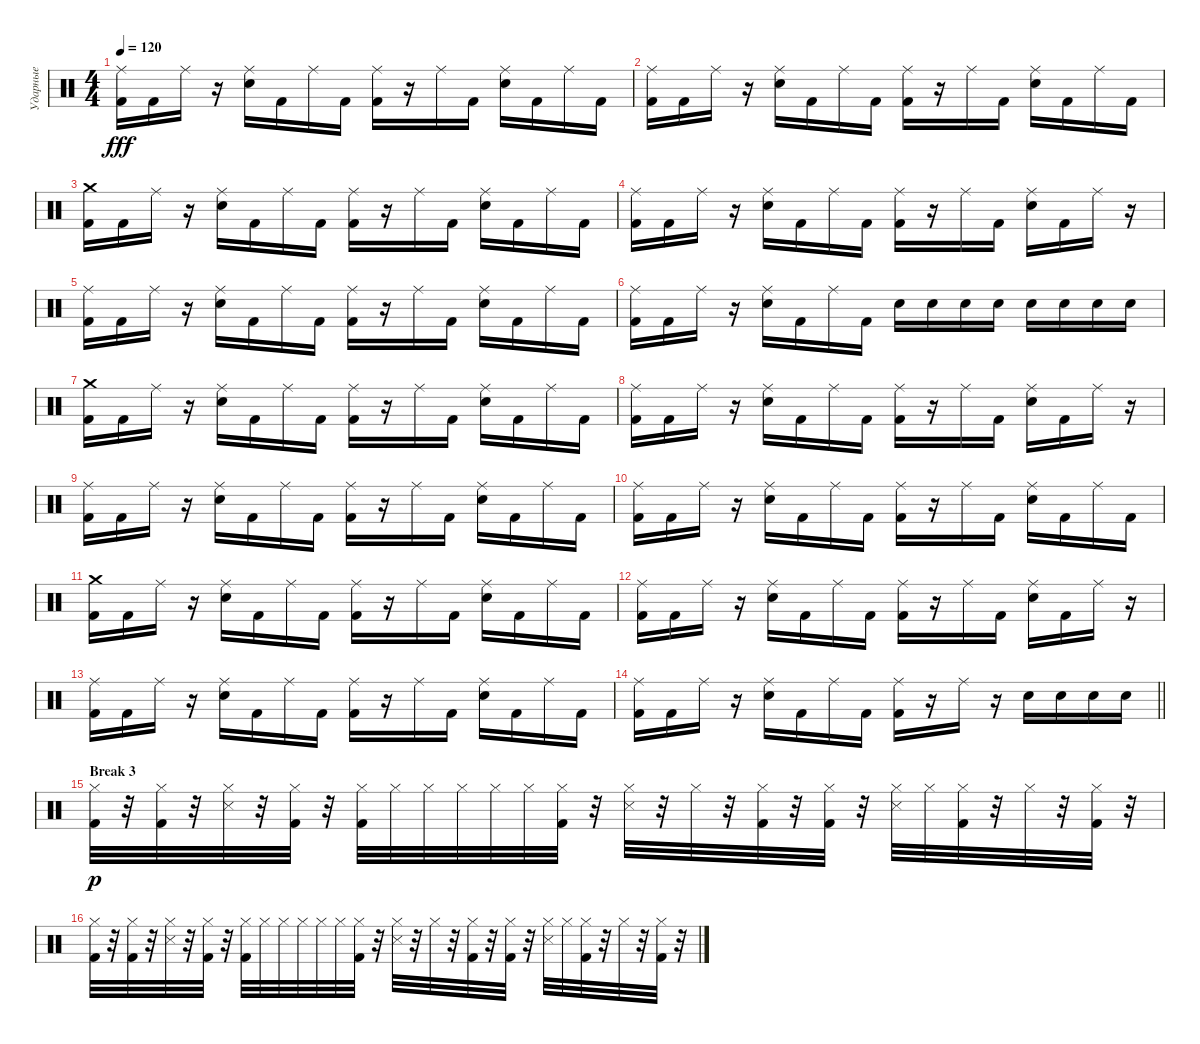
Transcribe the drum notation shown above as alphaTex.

\track ("Ударные" "Ударные") {instrument percussion}
\staff {score}
\articulation defaults
\ts (4 4)
\tempo 120
\clef neutral
\ks c
("Ride (middle)" "Kick (hit) 2").16{dy fff} "Kick (hit) 2".16 "Ride (middle)".16 r.16 ("Ride (middle)" "Electric Snare (hit)").16 "Kick (hit) 2".16 "Ride (middle)".16 "Kick (hit) 2".16 ("Ride (middle)" "Kick (hit) 2").16 r.16 "Ride (middle)".16 "Kick (hit) 2".16 ("Ride (middle)" "Electric Snare (hit)").16 "Kick (hit) 2".16 "Ride (middle)".16 "Kick (hit) 2".16 |
("Ride (middle)" "Kick (hit) 2").16 "Kick (hit) 2".16 "Ride (middle)".16 r.16 ("Ride (middle)" "Electric Snare (hit)").16 "Kick (hit) 2".16 "Ride (middle)".16 "Kick (hit) 2".16 ("Ride (middle)" "Kick (hit) 2").16 r.16 "Ride (middle)".16 "Kick (hit) 2".16 ("Ride (middle)" "Electric Snare (hit)").16 "Kick (hit) 2".16 "Ride (middle)".16 "Kick (hit) 2".16 |
("Crash medium (hit)" "Kick (hit) 2").16 "Kick (hit) 2".16 "Ride (middle)".16 r.16 ("Ride (middle)" "Electric Snare (hit)").16 "Kick (hit) 2".16 "Ride (middle)".16 "Kick (hit) 2".16 ("Ride (middle)" "Kick (hit) 2").16 r.16 "Ride (middle)".16 "Kick (hit) 2".16 ("Ride (middle)" "Electric Snare (hit)").16 "Kick (hit) 2".16 "Ride (middle)".16 "Kick (hit) 2".16 |
("Ride (middle)" "Kick (hit) 2").16 "Kick (hit) 2".16 "Ride (middle)".16 r.16 ("Ride (middle)" "Electric Snare (hit)").16 "Kick (hit) 2".16 "Ride (middle)".16 "Kick (hit) 2".16 ("Ride (middle)" "Kick (hit) 2").16 r.16 "Ride (middle)".16 "Kick (hit) 2".16 ("Ride (middle)" "Electric Snare (hit)").16 "Kick (hit) 2".16 "Ride (middle)".16 r.16 |
("Ride (middle)" "Kick (hit) 2").16 "Kick (hit) 2".16 "Ride (middle)".16 r.16 ("Ride (middle)" "Electric Snare (hit)").16 "Kick (hit) 2".16 "Ride (middle)".16 "Kick (hit) 2".16 ("Ride (middle)" "Kick (hit) 2").16 r.16 "Ride (middle)".16 "Kick (hit) 2".16 ("Ride (middle)" "Electric Snare (hit)").16 "Kick (hit) 2".16 "Ride (middle)".16 "Kick (hit) 2".16 |
("Ride (middle)" "Kick (hit) 2").16 "Kick (hit) 2".16 "Ride (middle)".16 r.16 ("Ride (middle)" "Electric Snare (hit)").16 "Kick (hit) 2".16 "Ride (middle)".16 "Kick (hit) 2".16 "Electric Snare (hit)".16 "Electric Snare (hit)".16 "Electric Snare (hit)".16 "Electric Snare (hit)".16 "Electric Snare (hit)".16 "Electric Snare (hit)".16 "Electric Snare (hit)".16 "Electric Snare (hit)".16 |
("Crash medium (hit)" "Kick (hit) 2").16 "Kick (hit) 2".16 "Ride (middle)".16 r.16 ("Ride (middle)" "Electric Snare (hit)").16 "Kick (hit) 2".16 "Ride (middle)".16 "Kick (hit) 2".16 ("Ride (middle)" "Kick (hit) 2").16 r.16 "Ride (middle)".16 "Kick (hit) 2".16 ("Ride (middle)" "Electric Snare (hit)").16 "Kick (hit) 2".16 "Ride (middle)".16 "Kick (hit) 2".16 |
("Ride (middle)" "Kick (hit) 2").16 "Kick (hit) 2".16 "Ride (middle)".16 r.16 ("Ride (middle)" "Electric Snare (hit)").16 "Kick (hit) 2".16 "Ride (middle)".16 "Kick (hit) 2".16 ("Ride (middle)" "Kick (hit) 2").16 r.16 "Ride (middle)".16 "Kick (hit) 2".16 ("Ride (middle)" "Electric Snare (hit)").16 "Kick (hit) 2".16 "Ride (middle)".16 r.16 |
("Ride (middle)" "Kick (hit) 2").16 "Kick (hit) 2".16 "Ride (middle)".16 r.16 ("Ride (middle)" "Electric Snare (hit)").16 "Kick (hit) 2".16 "Ride (middle)".16 "Kick (hit) 2".16 ("Ride (middle)" "Kick (hit) 2").16 r.16 "Ride (middle)".16 "Kick (hit) 2".16 ("Ride (middle)" "Electric Snare (hit)").16 "Kick (hit) 2".16 "Ride (middle)".16 "Kick (hit) 2".16 |
("Ride (middle)" "Kick (hit) 2").16 "Kick (hit) 2".16 "Ride (middle)".16 r.16 ("Ride (middle)" "Electric Snare (hit)").16 "Kick (hit) 2".16 "Ride (middle)".16 "Kick (hit) 2".16 ("Ride (middle)" "Kick (hit) 2").16 r.16 "Ride (middle)".16 "Kick (hit) 2".16 ("Ride (middle)" "Electric Snare (hit)").16 "Kick (hit) 2".16 "Ride (middle)".16 "Kick (hit) 2".16 |
("Crash medium (hit)" "Kick (hit) 2").16 "Kick (hit) 2".16 "Ride (middle)".16 r.16 ("Ride (middle)" "Electric Snare (hit)").16 "Kick (hit) 2".16 "Ride (middle)".16 "Kick (hit) 2".16 ("Ride (middle)" "Kick (hit) 2").16 r.16 "Ride (middle)".16 "Kick (hit) 2".16 ("Ride (middle)" "Electric Snare (hit)").16 "Kick (hit) 2".16 "Ride (middle)".16 "Kick (hit) 2".16 |
("Ride (middle)" "Kick (hit) 2").16 "Kick (hit) 2".16 "Ride (middle)".16 r.16 ("Ride (middle)" "Electric Snare (hit)").16 "Kick (hit) 2".16 "Ride (middle)".16 "Kick (hit) 2".16 ("Ride (middle)" "Kick (hit) 2").16 r.16 "Ride (middle)".16 "Kick (hit) 2".16 ("Ride (middle)" "Electric Snare (hit)").16 "Kick (hit) 2".16 "Ride (middle)".16 r.16 |
("Ride (middle)" "Kick (hit) 2").16 "Kick (hit) 2".16 "Ride (middle)".16 r.16 ("Ride (middle)" "Electric Snare (hit)").16 "Kick (hit) 2".16 "Ride (middle)".16 "Kick (hit) 2".16 ("Ride (middle)" "Kick (hit) 2").16 r.16 "Ride (middle)".16 "Kick (hit) 2".16 ("Ride (middle)" "Electric Snare (hit)").16 "Kick (hit) 2".16 "Ride (middle)".16 "Kick (hit) 2".16 |
\barLineRight lightlight
("Ride (middle)" "Kick (hit) 2").16 "Kick (hit) 2".16 "Ride (middle)".16 r.16 ("Ride (middle)" "Electric Snare (hit)").16 "Kick (hit) 2".16 "Ride (middle)".16 "Kick (hit) 2".16 ("Ride (middle)" "Kick (hit) 2").16 r.16 "Ride (middle)".16 r.16 "Electric Snare (hit)".16 "Electric Snare (hit)".16 "Electric Snare (hit)".16 "Electric Snare (hit)".16 |
\section ("" "Break 3")
("Hi-Hat (closed)" "Kick (hit) 2").32{dy p} r.32 ("Hi-Hat (closed)" "Kick (hit) 2").32 r.32 ("Hi-Hat (closed)" "Metronome (hit)").32 r.32 ("Hi-Hat (closed)" "Kick (hit) 2").32 r.32 ("Hi-Hat (closed)" "Kick (hit) 2").32 "Hi-Hat (closed)".32 "Hi-Hat (closed)".32 "Hi-Hat (closed)".32 "Hi-Hat (closed)".32 "Hi-Hat (closed)".32 ("Hi-Hat (closed)" "Kick (hit) 2").32 r.32 ("Hi-Hat (closed)" "Metronome (hit)").32 r.32 "Hi-Hat (closed)".32 r.32 ("Hi-Hat (closed)" "Kick (hit) 2").32 r.32 ("Hi-Hat (closed)" "Kick (hit) 2").32 r.32 ("Hi-Hat (closed)" "Metronome (hit)").32 "Hi-Hat (closed)".32 ("Hi-Hat (closed)" "Kick (hit) 2").32 r.32 "Hi-Hat (closed)".32 r.32 ("Hi-Hat (closed)" "Kick (hit) 2").32 r.32 |
("Hi-Hat (closed)" "Kick (hit) 2").32 r.32 ("Hi-Hat (closed)" "Kick (hit) 2").32 r.32 ("Hi-Hat (closed)" "Metronome (hit)").32 r.32 ("Hi-Hat (closed)" "Kick (hit) 2").32 r.32 ("Hi-Hat (closed)" "Kick (hit) 2").32 "Hi-Hat (closed)".32 "Hi-Hat (closed)".32 "Hi-Hat (closed)".32 "Hi-Hat (closed)".32 "Hi-Hat (closed)".32 ("Hi-Hat (closed)" "Kick (hit) 2").32 r.32 ("Hi-Hat (closed)" "Metronome (hit)").32 r.32 "Hi-Hat (closed)".32 r.32 ("Hi-Hat (closed)" "Kick (hit) 2").32 r.32 ("Hi-Hat (closed)" "Kick (hit) 2").32 r.32 ("Hi-Hat (closed)" "Metronome (hit)").32 "Hi-Hat (closed)".32 ("Hi-Hat (closed)" "Kick (hit) 2").32 r.32 "Hi-Hat (closed)".32 r.32 ("Hi-Hat (closed)" "Kick (hit) 2").32 r.32
